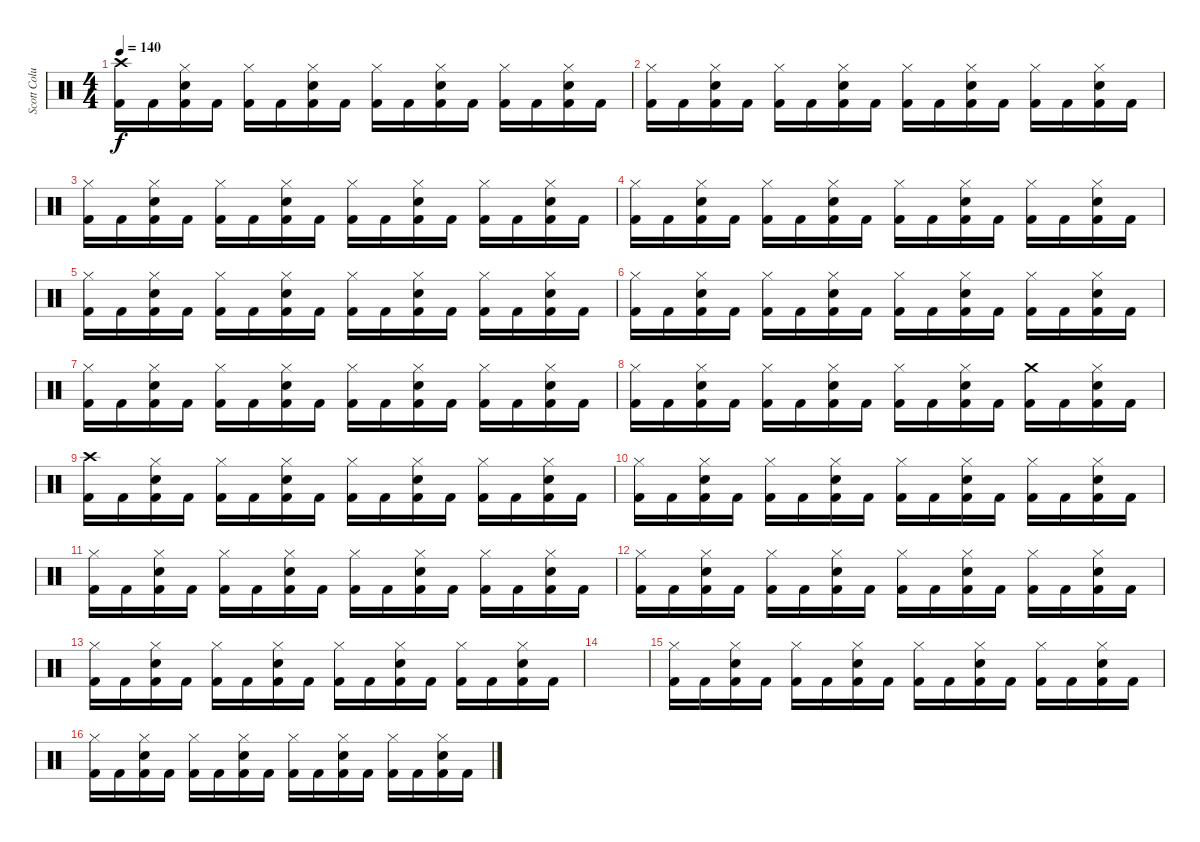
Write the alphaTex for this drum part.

\track ("Scott Columbus(Drums)" "Scott Colu") {instrument percussion}
\staff {score}
\articulation defaults
\ts (4 4)
\tempo 140
\clef neutral
\ks c
("Crash high (hit)" "Kick (hit) 2").16{dy f} "Kick (hit) 2".16 ("Hi-Hat (closed)" "Snare (hit) 2" "Kick (hit) 2").16 "Kick (hit) 2".16 ("Hi-Hat (closed)" "Kick (hit) 2").16 "Kick (hit) 2".16 ("Hi-Hat (closed)" "Snare (hit) 2" "Kick (hit) 2").16 "Kick (hit) 2".16 ("Hi-Hat (closed)" "Kick (hit) 2").16 "Kick (hit) 2".16 ("Hi-Hat (closed)" "Snare (hit) 2" "Kick (hit) 2").16 "Kick (hit) 2".16 ("Hi-Hat (closed)" "Kick (hit) 2").16 "Kick (hit) 2".16 ("Hi-Hat (closed)" "Snare (hit) 2" "Kick (hit) 2").16 "Kick (hit) 2".16 |
("Hi-Hat (closed)" "Kick (hit) 2").16 "Kick (hit) 2".16 ("Hi-Hat (closed)" "Snare (hit) 2" "Kick (hit) 2").16 "Kick (hit) 2".16 ("Hi-Hat (closed)" "Kick (hit) 2").16 "Kick (hit) 2".16 ("Hi-Hat (closed)" "Snare (hit) 2" "Kick (hit) 2").16 "Kick (hit) 2".16 ("Hi-Hat (closed)" "Kick (hit) 2").16 "Kick (hit) 2".16 ("Hi-Hat (closed)" "Snare (hit) 2" "Kick (hit) 2").16 "Kick (hit) 2".16 ("Hi-Hat (closed)" "Kick (hit) 2").16 "Kick (hit) 2".16 ("Hi-Hat (closed)" "Snare (hit) 2" "Kick (hit) 2").16 "Kick (hit) 2".16 |
("Hi-Hat (closed)" "Kick (hit) 2").16 "Kick (hit) 2".16 ("Hi-Hat (closed)" "Snare (hit) 2" "Kick (hit) 2").16 "Kick (hit) 2".16 ("Hi-Hat (closed)" "Kick (hit) 2").16 "Kick (hit) 2".16 ("Hi-Hat (closed)" "Snare (hit) 2" "Kick (hit) 2").16 "Kick (hit) 2".16 ("Hi-Hat (closed)" "Kick (hit) 2").16 "Kick (hit) 2".16 ("Hi-Hat (closed)" "Snare (hit) 2" "Kick (hit) 2").16 "Kick (hit) 2".16 ("Hi-Hat (closed)" "Kick (hit) 2").16 "Kick (hit) 2".16 ("Hi-Hat (closed)" "Snare (hit) 2" "Kick (hit) 2").16 "Kick (hit) 2".16 |
("Hi-Hat (closed)" "Kick (hit) 2").16 "Kick (hit) 2".16 ("Hi-Hat (closed)" "Snare (hit) 2" "Kick (hit) 2").16 "Kick (hit) 2".16 ("Hi-Hat (closed)" "Kick (hit) 2").16 "Kick (hit) 2".16 ("Hi-Hat (closed)" "Snare (hit) 2" "Kick (hit) 2").16 "Kick (hit) 2".16 ("Hi-Hat (closed)" "Kick (hit) 2").16 "Kick (hit) 2".16 ("Hi-Hat (closed)" "Snare (hit) 2" "Kick (hit) 2").16 "Kick (hit) 2".16 ("Hi-Hat (closed)" "Kick (hit) 2").16 "Kick (hit) 2".16 ("Hi-Hat (closed)" "Snare (hit) 2" "Kick (hit) 2").16 "Kick (hit) 2".16 |
("Hi-Hat (closed)" "Kick (hit) 2").16 "Kick (hit) 2".16 ("Hi-Hat (closed)" "Snare (hit) 2" "Kick (hit) 2").16 "Kick (hit) 2".16 ("Hi-Hat (closed)" "Kick (hit) 2").16 "Kick (hit) 2".16 ("Hi-Hat (closed)" "Snare (hit) 2" "Kick (hit) 2").16 "Kick (hit) 2".16 ("Hi-Hat (closed)" "Kick (hit) 2").16 "Kick (hit) 2".16 ("Hi-Hat (closed)" "Snare (hit) 2" "Kick (hit) 2").16 "Kick (hit) 2".16 ("Hi-Hat (closed)" "Kick (hit) 2").16 "Kick (hit) 2".16 ("Hi-Hat (closed)" "Snare (hit) 2" "Kick (hit) 2").16 "Kick (hit) 2".16 |
("Hi-Hat (closed)" "Kick (hit) 2").16 "Kick (hit) 2".16 ("Hi-Hat (closed)" "Snare (hit) 2" "Kick (hit) 2").16 "Kick (hit) 2".16 ("Hi-Hat (closed)" "Kick (hit) 2").16 "Kick (hit) 2".16 ("Hi-Hat (closed)" "Snare (hit) 2" "Kick (hit) 2").16 "Kick (hit) 2".16 ("Hi-Hat (closed)" "Kick (hit) 2").16 "Kick (hit) 2".16 ("Hi-Hat (closed)" "Snare (hit) 2" "Kick (hit) 2").16 "Kick (hit) 2".16 ("Hi-Hat (closed)" "Kick (hit) 2").16 "Kick (hit) 2".16 ("Hi-Hat (closed)" "Snare (hit) 2" "Kick (hit) 2").16 "Kick (hit) 2".16 |
("Hi-Hat (closed)" "Kick (hit) 2").16 "Kick (hit) 2".16 ("Hi-Hat (closed)" "Snare (hit) 2" "Kick (hit) 2").16 "Kick (hit) 2".16 ("Hi-Hat (closed)" "Kick (hit) 2").16 "Kick (hit) 2".16 ("Hi-Hat (closed)" "Snare (hit) 2" "Kick (hit) 2").16 "Kick (hit) 2".16 ("Hi-Hat (closed)" "Kick (hit) 2").16 "Kick (hit) 2".16 ("Hi-Hat (closed)" "Snare (hit) 2" "Kick (hit) 2").16 "Kick (hit) 2".16 ("Hi-Hat (closed)" "Kick (hit) 2").16 "Kick (hit) 2".16 ("Hi-Hat (closed)" "Snare (hit) 2" "Kick (hit) 2").16 "Kick (hit) 2".16 |
("Hi-Hat (closed)" "Kick (hit) 2").16 "Kick (hit) 2".16 ("Hi-Hat (closed)" "Snare (hit) 2" "Kick (hit) 2").16 "Kick (hit) 2".16 ("Hi-Hat (closed)" "Kick (hit) 2").16 "Kick (hit) 2".16 ("Hi-Hat (closed)" "Snare (hit) 2" "Kick (hit) 2").16 "Kick (hit) 2".16 ("Hi-Hat (closed)" "Kick (hit) 2").16 "Kick (hit) 2".16 ("Hi-Hat (closed)" "Snare (hit) 2" "Kick (hit) 2").16 "Kick (hit) 2".16 ("Crash medium (hit)" "Kick (hit) 2").16 "Kick (hit) 2".16 ("Hi-Hat (closed)" "Snare (hit) 2" "Kick (hit) 2").16 "Kick (hit) 2".16 |
("Crash high (hit)" "Kick (hit) 2").16 "Kick (hit) 2".16 ("Hi-Hat (closed)" "Snare (hit) 2" "Kick (hit) 2").16 "Kick (hit) 2".16 ("Hi-Hat (closed)" "Kick (hit) 2").16 "Kick (hit) 2".16 ("Hi-Hat (closed)" "Snare (hit) 2" "Kick (hit) 2").16 "Kick (hit) 2".16 ("Hi-Hat (closed)" "Kick (hit) 2").16 "Kick (hit) 2".16 ("Hi-Hat (closed)" "Snare (hit) 2" "Kick (hit) 2").16 "Kick (hit) 2".16 ("Hi-Hat (closed)" "Kick (hit) 2").16 "Kick (hit) 2".16 ("Hi-Hat (closed)" "Snare (hit) 2" "Kick (hit) 2").16 "Kick (hit) 2".16 |
("Hi-Hat (closed)" "Kick (hit) 2").16 "Kick (hit) 2".16 ("Hi-Hat (closed)" "Snare (hit) 2" "Kick (hit) 2").16 "Kick (hit) 2".16 ("Hi-Hat (closed)" "Kick (hit) 2").16 "Kick (hit) 2".16 ("Hi-Hat (closed)" "Snare (hit) 2" "Kick (hit) 2").16 "Kick (hit) 2".16 ("Hi-Hat (closed)" "Kick (hit) 2").16 "Kick (hit) 2".16 ("Hi-Hat (closed)" "Snare (hit) 2" "Kick (hit) 2").16 "Kick (hit) 2".16 ("Hi-Hat (closed)" "Kick (hit) 2").16 "Kick (hit) 2".16 ("Hi-Hat (closed)" "Snare (hit) 2" "Kick (hit) 2").16 "Kick (hit) 2".16 |
("Hi-Hat (closed)" "Kick (hit) 2").16 "Kick (hit) 2".16 ("Hi-Hat (closed)" "Snare (hit) 2" "Kick (hit) 2").16 "Kick (hit) 2".16 ("Hi-Hat (closed)" "Kick (hit) 2").16 "Kick (hit) 2".16 ("Hi-Hat (closed)" "Snare (hit) 2" "Kick (hit) 2").16 "Kick (hit) 2".16 ("Hi-Hat (closed)" "Kick (hit) 2").16 "Kick (hit) 2".16 ("Hi-Hat (closed)" "Snare (hit) 2" "Kick (hit) 2").16 "Kick (hit) 2".16 ("Hi-Hat (closed)" "Kick (hit) 2").16 "Kick (hit) 2".16 ("Hi-Hat (closed)" "Snare (hit) 2" "Kick (hit) 2").16 "Kick (hit) 2".16 |
("Hi-Hat (closed)" "Kick (hit) 2").16 "Kick (hit) 2".16 ("Hi-Hat (closed)" "Snare (hit) 2" "Kick (hit) 2").16 "Kick (hit) 2".16 ("Hi-Hat (closed)" "Kick (hit) 2").16 "Kick (hit) 2".16 ("Hi-Hat (closed)" "Snare (hit) 2" "Kick (hit) 2").16 "Kick (hit) 2".16 ("Hi-Hat (closed)" "Kick (hit) 2").16 "Kick (hit) 2".16 ("Hi-Hat (closed)" "Snare (hit) 2" "Kick (hit) 2").16 "Kick (hit) 2".16 ("Hi-Hat (closed)" "Kick (hit) 2").16 "Kick (hit) 2".16 ("Hi-Hat (closed)" "Snare (hit) 2" "Kick (hit) 2").16 "Kick (hit) 2".16 |
("Hi-Hat (closed)" "Kick (hit) 2").16 "Kick (hit) 2".16 ("Hi-Hat (closed)" "Snare (hit) 2" "Kick (hit) 2").16 "Kick (hit) 2".16 ("Hi-Hat (closed)" "Kick (hit) 2").16 "Kick (hit) 2".16 ("Hi-Hat (closed)" "Snare (hit) 2" "Kick (hit) 2").16 "Kick (hit) 2".16 ("Hi-Hat (closed)" "Kick (hit) 2").16 "Kick (hit) 2".16 ("Hi-Hat (closed)" "Snare (hit) 2" "Kick (hit) 2").16 "Kick (hit) 2".16 ("Hi-Hat (closed)" "Kick (hit) 2").16 "Kick (hit) 2".16 ("Hi-Hat (closed)" "Snare (hit) 2" "Kick (hit) 2").16 "Kick (hit) 2".16 |
|
("Hi-Hat (closed)" "Kick (hit) 2").16 "Kick (hit) 2".16 ("Hi-Hat (closed)" "Snare (hit) 2" "Kick (hit) 2").16 "Kick (hit) 2".16 ("Hi-Hat (closed)" "Kick (hit) 2").16 "Kick (hit) 2".16 ("Hi-Hat (closed)" "Snare (hit) 2" "Kick (hit) 2").16 "Kick (hit) 2".16 ("Hi-Hat (closed)" "Kick (hit) 2").16 "Kick (hit) 2".16 ("Hi-Hat (closed)" "Snare (hit) 2" "Kick (hit) 2").16 "Kick (hit) 2".16 ("Hi-Hat (closed)" "Kick (hit) 2").16 "Kick (hit) 2".16 ("Hi-Hat (closed)" "Snare (hit) 2" "Kick (hit) 2").16 "Kick (hit) 2".16 |
("Hi-Hat (closed)" "Kick (hit) 2").16 "Kick (hit) 2".16 ("Hi-Hat (closed)" "Snare (hit) 2" "Kick (hit) 2").16 "Kick (hit) 2".16 ("Hi-Hat (closed)" "Kick (hit) 2").16 "Kick (hit) 2".16 ("Hi-Hat (closed)" "Snare (hit) 2" "Kick (hit) 2").16 "Kick (hit) 2".16 ("Hi-Hat (closed)" "Kick (hit) 2").16 "Kick (hit) 2".16 ("Hi-Hat (closed)" "Snare (hit) 2" "Kick (hit) 2").16 "Kick (hit) 2".16 ("Hi-Hat (closed)" "Kick (hit) 2").16 "Kick (hit) 2".16 ("Hi-Hat (closed)" "Snare (hit) 2" "Kick (hit) 2").16 "Kick (hit) 2".16
